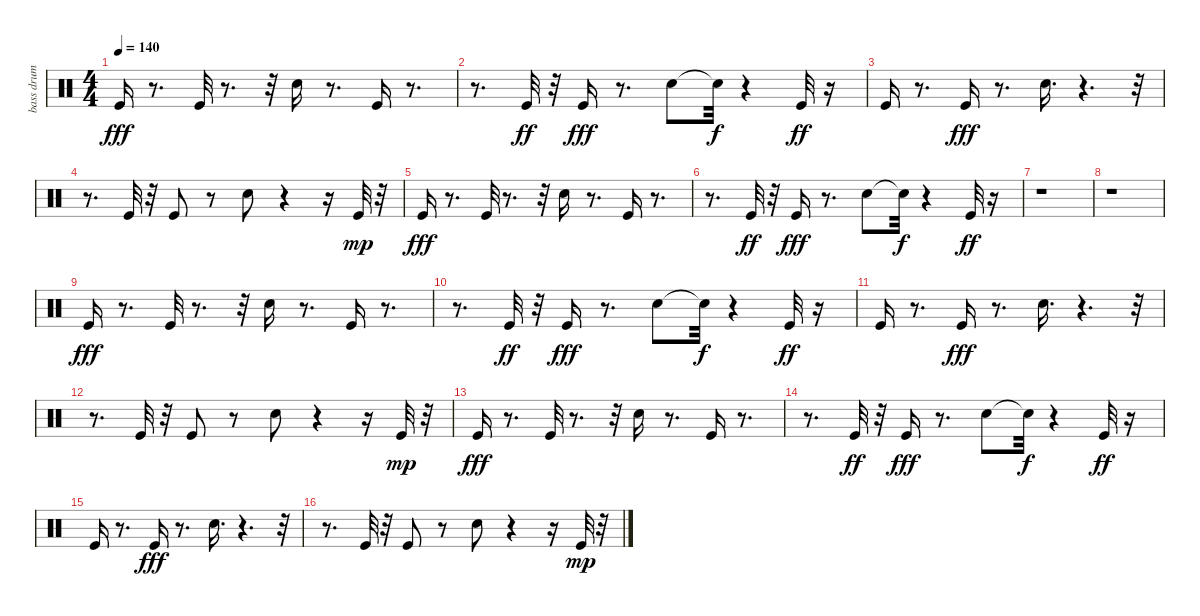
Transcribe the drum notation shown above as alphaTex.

\track ("bass drum" "bass drum") {instrument percussion}
\staff {score}
\articulation defaults
\ts (4 4)
\tempo 140
\clef neutral
\ks c "Kick (hit)".16{dy fff}
r.8{d} "Kick (hit)".32 r.8{d} r.32 "Electric Snare (hit)".16 r.8{d} "Kick (hit)".16 r.8{d} |
r.8{d} "Kick (hit)".32{dy ff} r.32 "Kick (hit)".16{dy fff} r.8{d} "Electric Snare (hit)".8 "Snare (hit)"{t}.32{dy f} r.4 "Kick (hit)".32{dy ff} r.16 |
"Kick (hit)".16 r.8{d} "Kick (hit)".16{dy fff} r.8{d} "Electric Snare (hit)".16{d} r.4{d} r.32 |
r.8{d} "Kick (hit)".32 r.32 "Kick (hit)".8 r.8 "Electric Snare (hit)".8 r.4 r.16 "Kick (hit)".32{dy mp} r.32 |
"Kick (hit)".16{dy fff} r.8{d} "Kick (hit)".32 r.8{d} r.32 "Electric Snare (hit)".16 r.8{d} "Kick (hit)".16 r.8{d} |
r.8{d} "Kick (hit)".32{dy ff} r.32 "Kick (hit)".16{dy fff} r.8{d} "Electric Snare (hit)".8 "Snare (hit)"{t}.32{dy f} r.4 "Kick (hit)".32{dy ff} r.16 |
r.1 |
r.1 |
"Kick (hit)".16{dy fff} r.8{d} "Kick (hit)".32 r.8{d} r.32 "Electric Snare (hit)".16 r.8{d} "Kick (hit)".16 r.8{d} |
r.8{d} "Kick (hit)".32{dy ff} r.32 "Kick (hit)".16{dy fff} r.8{d} "Electric Snare (hit)".8 "Snare (hit)"{t}.32{dy f} r.4 "Kick (hit)".32{dy ff} r.16 |
"Kick (hit)".16 r.8{d} "Kick (hit)".16{dy fff} r.8{d} "Electric Snare (hit)".16{d} r.4{d} r.32 |
r.8{d} "Kick (hit)".32 r.32 "Kick (hit)".8 r.8 "Electric Snare (hit)".8 r.4 r.16 "Kick (hit)".32{dy mp} r.32 |
"Kick (hit)".16{dy fff} r.8{d} "Kick (hit)".32 r.8{d} r.32 "Electric Snare (hit)".16 r.8{d} "Kick (hit)".16 r.8{d} |
r.8{d} "Kick (hit)".32{dy ff} r.32 "Kick (hit)".16{dy fff} r.8{d} "Electric Snare (hit)".8 "Snare (hit)"{t}.32{dy f} r.4 "Kick (hit)".32{dy ff} r.16 |
"Kick (hit)".16 r.8{d} "Kick (hit)".16{dy fff} r.8{d} "Electric Snare (hit)".16{d} r.4{d} r.32 |
r.8{d} "Kick (hit)".32 r.32 "Kick (hit)".8 r.8 "Electric Snare (hit)".8 r.4 r.16 "Kick (hit)".32{dy mp} r.32
